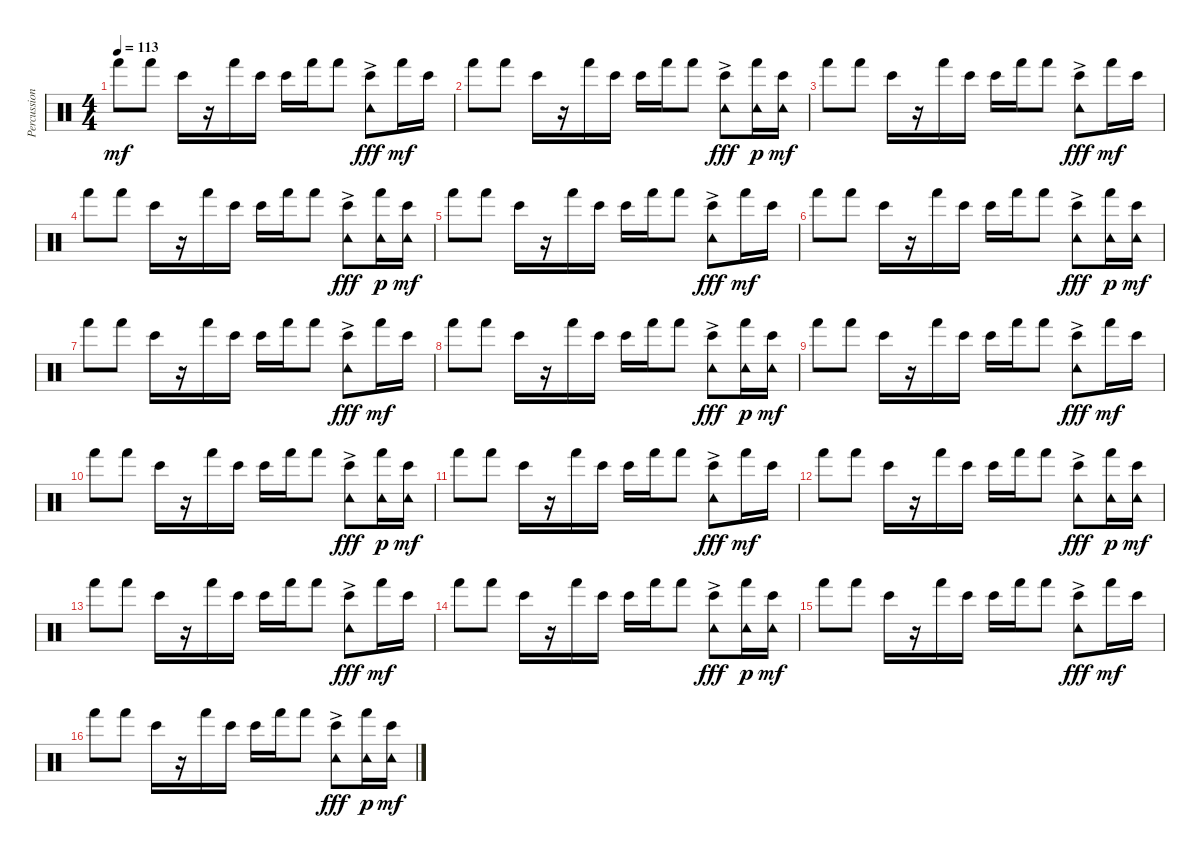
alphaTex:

\track ("Percussion" "Percussion") {instrument percussion}
\staff {score}
\articulation defaults
\ts (4 4)
\tempo 113
\clef neutral
\ks c "Hand (hit)".8{dy mf} "Hand (hit)".8 "Bongo High (hit)".16
r.16 "Hand (hit)".16 "Bongo High (hit)".16 "Bongo High (hit)".16 "Hand (hit)".16 "Hand (hit)".8 ("Bongo High (hit)" "Tambourine (hit)"{ac}).8{dy fff} "Hand (hit)".16{dy mf} "Bongo High (hit)".16 |
"Hand (hit)".8 "Hand (hit)".8 "Bongo High (hit)".16 r.16 "Hand (hit)".16 "Bongo High (hit)".16 "Bongo High (hit)".16 "Hand (hit)".16 "Hand (hit)".8 ("Bongo High (hit)" "Tambourine (hit)"{ac}).8{dy fff} ("Hand (hit)" "Tambourine (hit)").16{dy p} ("Bongo High (hit)" "Tambourine (hit)").16{dy mf} |
"Hand (hit)".8 "Hand (hit)".8 "Bongo High (hit)".16 r.16 "Hand (hit)".16 "Bongo High (hit)".16 "Bongo High (hit)".16 "Hand (hit)".16 "Hand (hit)".8 ("Bongo High (hit)" "Tambourine (hit)"{ac}).8{dy fff} "Hand (hit)".16{dy mf} "Bongo High (hit)".16 |
"Hand (hit)".8 "Hand (hit)".8 "Bongo High (hit)".16 r.16 "Hand (hit)".16 "Bongo High (hit)".16 "Bongo High (hit)".16 "Hand (hit)".16 "Hand (hit)".8 ("Bongo High (hit)" "Tambourine (hit)"{ac}).8{dy fff} ("Hand (hit)" "Tambourine (hit)").16{dy p} ("Bongo High (hit)" "Tambourine (hit)").16{dy mf} |
"Hand (hit)".8 "Hand (hit)".8 "Bongo High (hit)".16 r.16 "Hand (hit)".16 "Bongo High (hit)".16 "Bongo High (hit)".16 "Hand (hit)".16 "Hand (hit)".8 ("Bongo High (hit)" "Tambourine (hit)"{ac}).8{dy fff} "Hand (hit)".16{dy mf} "Bongo High (hit)".16 |
"Hand (hit)".8 "Hand (hit)".8 "Bongo High (hit)".16 r.16 "Hand (hit)".16 "Bongo High (hit)".16 "Bongo High (hit)".16 "Hand (hit)".16 "Hand (hit)".8 ("Bongo High (hit)" "Tambourine (hit)"{ac}).8{dy fff} ("Hand (hit)" "Tambourine (hit)").16{dy p} ("Bongo High (hit)" "Tambourine (hit)").16{dy mf} |
"Hand (hit)".8 "Hand (hit)".8 "Bongo High (hit)".16 r.16 "Hand (hit)".16 "Bongo High (hit)".16 "Bongo High (hit)".16 "Hand (hit)".16 "Hand (hit)".8 ("Bongo High (hit)" "Tambourine (hit)"{ac}).8{dy fff} "Hand (hit)".16{dy mf} "Bongo High (hit)".16 |
"Hand (hit)".8 "Hand (hit)".8 "Bongo High (hit)".16 r.16 "Hand (hit)".16 "Bongo High (hit)".16 "Bongo High (hit)".16 "Hand (hit)".16 "Hand (hit)".8 ("Bongo High (hit)" "Tambourine (hit)"{ac}).8{dy fff} ("Hand (hit)" "Tambourine (hit)").16{dy p} ("Bongo High (hit)" "Tambourine (hit)").16{dy mf} |
"Hand (hit)".8 "Hand (hit)".8 "Bongo High (hit)".16 r.16 "Hand (hit)".16 "Bongo High (hit)".16 "Bongo High (hit)".16 "Hand (hit)".16 "Hand (hit)".8 ("Bongo High (hit)" "Tambourine (hit)"{ac}).8{dy fff} "Hand (hit)".16{dy mf} "Bongo High (hit)".16 |
"Hand (hit)".8 "Hand (hit)".8 "Bongo High (hit)".16 r.16 "Hand (hit)".16 "Bongo High (hit)".16 "Bongo High (hit)".16 "Hand (hit)".16 "Hand (hit)".8 ("Bongo High (hit)" "Tambourine (hit)"{ac}).8{dy fff} ("Hand (hit)" "Tambourine (hit)").16{dy p} ("Bongo High (hit)" "Tambourine (hit)").16{dy mf} |
"Hand (hit)".8 "Hand (hit)".8 "Bongo High (hit)".16 r.16 "Hand (hit)".16 "Bongo High (hit)".16 "Bongo High (hit)".16 "Hand (hit)".16 "Hand (hit)".8 ("Bongo High (hit)" "Tambourine (hit)"{ac}).8{dy fff} "Hand (hit)".16{dy mf} "Bongo High (hit)".16 |
"Hand (hit)".8 "Hand (hit)".8 "Bongo High (hit)".16 r.16 "Hand (hit)".16 "Bongo High (hit)".16 "Bongo High (hit)".16 "Hand (hit)".16 "Hand (hit)".8 ("Bongo High (hit)" "Tambourine (hit)"{ac}).8{dy fff} ("Hand (hit)" "Tambourine (hit)").16{dy p} ("Bongo High (hit)" "Tambourine (hit)").16{dy mf} |
"Hand (hit)".8 "Hand (hit)".8 "Bongo High (hit)".16 r.16 "Hand (hit)".16 "Bongo High (hit)".16 "Bongo High (hit)".16 "Hand (hit)".16 "Hand (hit)".8 ("Bongo High (hit)" "Tambourine (hit)"{ac}).8{dy fff} "Hand (hit)".16{dy mf} "Bongo High (hit)".16 |
"Hand (hit)".8 "Hand (hit)".8 "Bongo High (hit)".16 r.16 "Hand (hit)".16 "Bongo High (hit)".16 "Bongo High (hit)".16 "Hand (hit)".16 "Hand (hit)".8 ("Bongo High (hit)" "Tambourine (hit)"{ac}).8{dy fff} ("Hand (hit)" "Tambourine (hit)").16{dy p} ("Bongo High (hit)" "Tambourine (hit)").16{dy mf} |
"Hand (hit)".8 "Hand (hit)".8 "Bongo High (hit)".16 r.16 "Hand (hit)".16 "Bongo High (hit)".16 "Bongo High (hit)".16 "Hand (hit)".16 "Hand (hit)".8 ("Bongo High (hit)" "Tambourine (hit)"{ac}).8{dy fff} "Hand (hit)".16{dy mf} "Bongo High (hit)".16 |
"Hand (hit)".8 "Hand (hit)".8 "Bongo High (hit)".16 r.16 "Hand (hit)".16 "Bongo High (hit)".16 "Bongo High (hit)".16 "Hand (hit)".16 "Hand (hit)".8 ("Bongo High (hit)" "Tambourine (hit)"{ac}).8{dy fff} ("Hand (hit)" "Tambourine (hit)").16{dy p} ("Bongo High (hit)" "Tambourine (hit)").16{dy mf}
